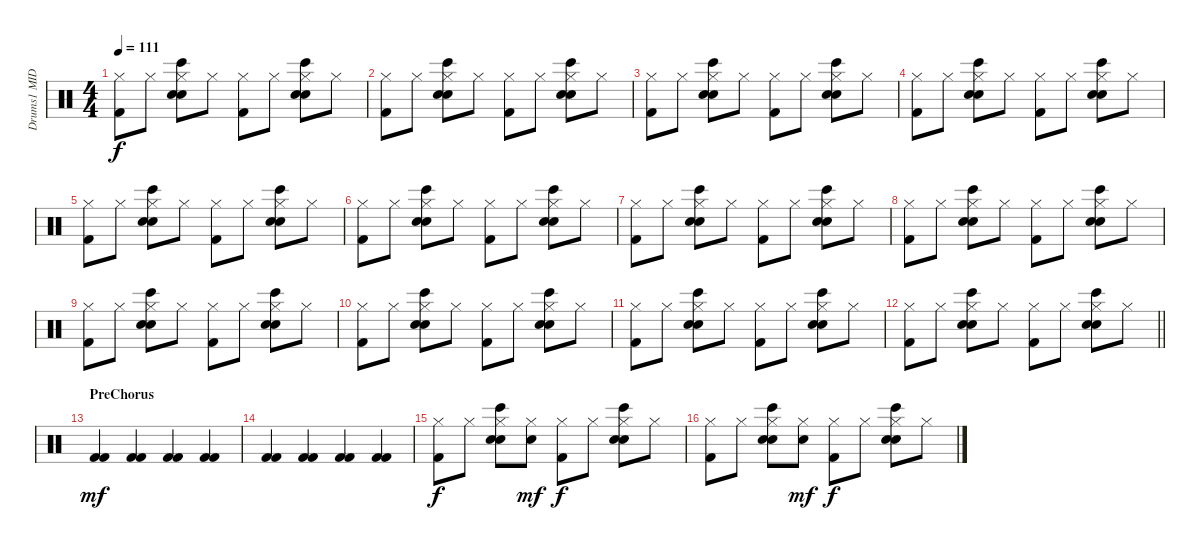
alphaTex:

\track ("Drums1 MIDI" "Drums1 MID") {instrument percussion}
\staff {score}
\articulation defaults
\ts (4 4)
\tempo 111
\clef neutral
\ks c
("Hi-Hat (closed)" "Kick (hit) 2").8{dy f} "Hi-Hat (closed)".8 ("Hi-Hat (closed)" "Bongo High (hit)" "Hand Clap (hit)" "Snare (hit) 2").8 "Hi-Hat (closed)".8 ("Hi-Hat (closed)" "Kick (hit) 2").8 "Hi-Hat (closed)".8 ("Hi-Hat (closed)" "Bongo High (hit)" "Hand Clap (hit)" "Snare (hit) 2").8 "Hi-Hat (closed)".8 |
("Hi-Hat (closed)" "Kick (hit) 2").8 "Hi-Hat (closed)".8 ("Hi-Hat (closed)" "Bongo High (hit)" "Hand Clap (hit)" "Snare (hit) 2").8 "Hi-Hat (closed)".8 ("Hi-Hat (closed)" "Kick (hit) 2").8 "Hi-Hat (closed)".8 ("Hi-Hat (closed)" "Bongo High (hit)" "Hand Clap (hit)" "Snare (hit) 2").8 "Hi-Hat (closed)".8 |
("Hi-Hat (closed)" "Kick (hit) 2").8 "Hi-Hat (closed)".8 ("Hi-Hat (closed)" "Bongo High (hit)" "Hand Clap (hit)" "Snare (hit) 2").8 "Hi-Hat (closed)".8 ("Hi-Hat (closed)" "Kick (hit) 2").8 "Hi-Hat (closed)".8 ("Hi-Hat (closed)" "Bongo High (hit)" "Hand Clap (hit)" "Snare (hit) 2").8 "Hi-Hat (closed)".8 |
("Hi-Hat (closed)" "Kick (hit) 2").8 "Hi-Hat (closed)".8 ("Hi-Hat (closed)" "Bongo High (hit)" "Hand Clap (hit)" "Snare (hit) 2").8 "Hi-Hat (closed)".8 ("Hi-Hat (closed)" "Kick (hit) 2").8 "Hi-Hat (closed)".8 ("Hi-Hat (closed)" "Bongo High (hit)" "Hand Clap (hit)" "Snare (hit) 2").8 "Hi-Hat (closed)".8 |
("Hi-Hat (closed)" "Kick (hit) 2").8 "Hi-Hat (closed)".8 ("Hi-Hat (closed)" "Bongo High (hit)" "Hand Clap (hit)" "Snare (hit) 2").8 "Hi-Hat (closed)".8 ("Hi-Hat (closed)" "Kick (hit) 2").8 "Hi-Hat (closed)".8 ("Hi-Hat (closed)" "Bongo High (hit)" "Hand Clap (hit)" "Snare (hit) 2").8 "Hi-Hat (closed)".8 |
("Hi-Hat (closed)" "Kick (hit) 2").8 "Hi-Hat (closed)".8 ("Hi-Hat (closed)" "Bongo High (hit)" "Hand Clap (hit)" "Snare (hit) 2").8 "Hi-Hat (closed)".8 ("Hi-Hat (closed)" "Kick (hit) 2").8 "Hi-Hat (closed)".8 ("Hi-Hat (closed)" "Bongo High (hit)" "Hand Clap (hit)" "Snare (hit) 2").8 "Hi-Hat (closed)".8 |
("Hi-Hat (closed)" "Kick (hit) 2").8 "Hi-Hat (closed)".8 ("Hi-Hat (closed)" "Bongo High (hit)" "Hand Clap (hit)" "Snare (hit) 2").8 "Hi-Hat (closed)".8 ("Hi-Hat (closed)" "Kick (hit) 2").8 "Hi-Hat (closed)".8 ("Hi-Hat (closed)" "Bongo High (hit)" "Hand Clap (hit)" "Snare (hit) 2").8 "Hi-Hat (closed)".8 |
("Hi-Hat (closed)" "Kick (hit) 2").8 "Hi-Hat (closed)".8 ("Hi-Hat (closed)" "Bongo High (hit)" "Hand Clap (hit)" "Snare (hit) 2").8 "Hi-Hat (closed)".8 ("Hi-Hat (closed)" "Kick (hit) 2").8 "Hi-Hat (closed)".8 ("Hi-Hat (closed)" "Bongo High (hit)" "Hand Clap (hit)" "Snare (hit) 2").8 "Hi-Hat (closed)".8 |
("Hi-Hat (closed)" "Kick (hit) 2").8 "Hi-Hat (closed)".8 ("Hi-Hat (closed)" "Bongo High (hit)" "Hand Clap (hit)" "Snare (hit) 2").8 "Hi-Hat (closed)".8 ("Hi-Hat (closed)" "Kick (hit) 2").8 "Hi-Hat (closed)".8 ("Hi-Hat (closed)" "Bongo High (hit)" "Hand Clap (hit)" "Snare (hit) 2").8 "Hi-Hat (closed)".8 |
("Hi-Hat (closed)" "Kick (hit) 2").8 "Hi-Hat (closed)".8 ("Hi-Hat (closed)" "Bongo High (hit)" "Hand Clap (hit)" "Snare (hit) 2").8 "Hi-Hat (closed)".8 ("Hi-Hat (closed)" "Kick (hit) 2").8 "Hi-Hat (closed)".8 ("Hi-Hat (closed)" "Bongo High (hit)" "Hand Clap (hit)" "Snare (hit) 2").8 "Hi-Hat (closed)".8 |
("Hi-Hat (closed)" "Kick (hit) 2").8 "Hi-Hat (closed)".8 ("Hi-Hat (closed)" "Bongo High (hit)" "Hand Clap (hit)" "Snare (hit) 2").8 "Hi-Hat (closed)".8 ("Hi-Hat (closed)" "Kick (hit) 2").8 "Hi-Hat (closed)".8 ("Hi-Hat (closed)" "Bongo High (hit)" "Hand Clap (hit)" "Snare (hit) 2").8 "Hi-Hat (closed)".8 |
\barLineRight lightlight
("Hi-Hat (closed)" "Kick (hit) 2").8 "Hi-Hat (closed)".8 ("Hi-Hat (closed)" "Bongo High (hit)" "Hand Clap (hit)" "Snare (hit) 2").8 "Hi-Hat (closed)".8 ("Hi-Hat (closed)" "Kick (hit) 2").8 "Hi-Hat (closed)".8 ("Hi-Hat (closed)" "Bongo High (hit)" "Hand Clap (hit)" "Snare (hit) 2").8 "Hi-Hat (closed)".8 |
\section ("" "PreChorus")
("Kick (hit) 2" "Kick (hit) 2").4{dy mf} ("Kick (hit) 2" "Kick (hit) 2").4 ("Kick (hit) 2" "Kick (hit) 2").4 ("Kick (hit) 2" "Kick (hit) 2").4 |
("Kick (hit) 2" "Kick (hit) 2").4 ("Kick (hit) 2" "Kick (hit) 2").4 ("Kick (hit) 2" "Kick (hit) 2").4 ("Kick (hit) 2" "Kick (hit) 2").4 |
("Hi-Hat (closed)" "Kick (hit) 2").8{dy f} "Hi-Hat (closed)".8 ("Hi-Hat (closed)" "Bongo High (hit)" "Hand Clap (hit)" "Snare (hit) 2").8 ("Hi-Hat (closed)" "Hand Clap (hit)").8{dy mf} ("Hi-Hat (closed)" "Kick (hit) 2").8{dy f} "Hi-Hat (closed)".8 ("Hi-Hat (closed)" "Bongo High (hit)" "Hand Clap (hit)" "Snare (hit) 2").8 "Hi-Hat (closed)".8 |
("Hi-Hat (closed)" "Kick (hit) 2").8 "Hi-Hat (closed)".8 ("Hi-Hat (closed)" "Bongo High (hit)" "Hand Clap (hit)" "Snare (hit) 2").8 ("Hi-Hat (closed)" "Hand Clap (hit)").8{dy mf} ("Hi-Hat (closed)" "Kick (hit) 2").8{dy f} "Hi-Hat (closed)".8 ("Hi-Hat (closed)" "Bongo High (hit)" "Hand Clap (hit)" "Snare (hit) 2").8 "Hi-Hat (closed)".8
